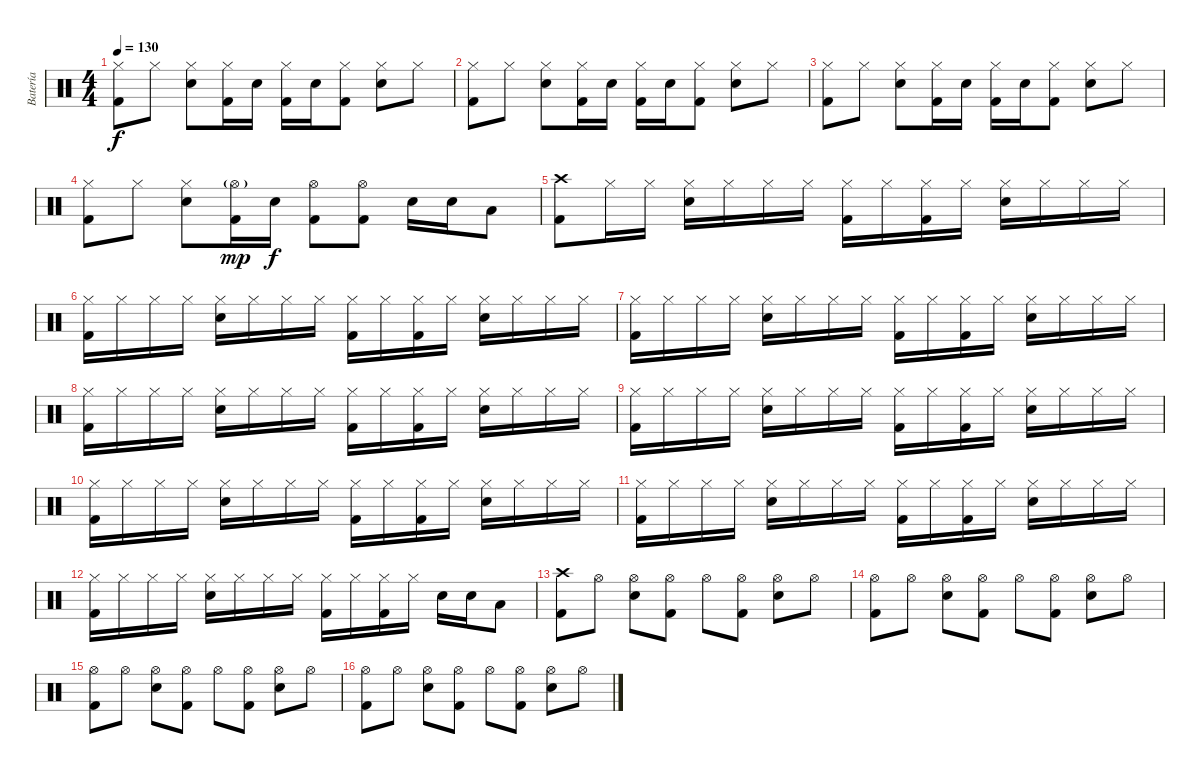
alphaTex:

\track ("Batería" "Batería") {instrument percussion}
\staff {score}
\articulation defaults
\ts (4 4)
\tempo 130
\clef neutral
\ks c
("Hi-Hat (closed)" "Kick (hit) 2").8{dy f} "Hi-Hat (closed)".8 ("Hi-Hat (closed)" "Snare (hit) 2").8 ("Hi-Hat (closed)" "Kick (hit) 2").16 "Snare (hit) 2".16 ("Hi-Hat (closed)" "Kick (hit) 2").16 "Snare (hit) 2".16 ("Hi-Hat (closed)" "Kick (hit) 2").8 ("Hi-Hat (closed)" "Snare (hit) 2").8 "Hi-Hat (closed)".8 |
("Hi-Hat (closed)" "Kick (hit) 2").8 "Hi-Hat (closed)".8 ("Hi-Hat (closed)" "Snare (hit) 2").8 ("Hi-Hat (closed)" "Kick (hit) 2").16 "Snare (hit) 2".16 ("Hi-Hat (closed)" "Kick (hit) 2").16 "Snare (hit) 2".16 ("Hi-Hat (closed)" "Kick (hit) 2").8 ("Hi-Hat (closed)" "Snare (hit) 2").8 "Hi-Hat (closed)".8 |
("Hi-Hat (closed)" "Kick (hit) 2").8 "Hi-Hat (closed)".8 ("Hi-Hat (closed)" "Snare (hit) 2").8 ("Hi-Hat (closed)" "Kick (hit) 2").16 "Snare (hit) 2".16 ("Hi-Hat (closed)" "Kick (hit) 2").16 "Snare (hit) 2".16 ("Hi-Hat (closed)" "Kick (hit) 2").8 ("Hi-Hat (closed)" "Snare (hit) 2").8 "Hi-Hat (closed)".8 |
("Hi-Hat (closed)" "Kick (hit) 2").8 "Hi-Hat (closed)".8 ("Hi-Hat (closed)" "Snare (hit) 2").8 ("Hi-Hat (open)"{g} "Kick (hit) 2").16{dy mp} "Snare (hit) 2".16{dy f} ("Hi-Hat (open)" "Kick (hit) 2").8 ("Hi-Hat (open)" "Kick (hit) 2").8 "Snare (hit) 2".16 "Snare (hit) 2".16 "Low Tom (hit)".8 |
("Crash high (hit)" "Kick (hit) 2").8 "Hi-Hat (closed)".16 "Hi-Hat (closed)".16 ("Hi-Hat (closed)" "Snare (hit) 2").16 "Hi-Hat (closed)".16 "Hi-Hat (closed)".16 "Hi-Hat (closed)".16 ("Hi-Hat (closed)" "Kick (hit) 2").16 "Hi-Hat (closed)".16 ("Hi-Hat (closed)" "Kick (hit) 2").16 "Hi-Hat (closed)".16 ("Hi-Hat (closed)" "Snare (hit) 2").16 "Hi-Hat (closed)".16 "Hi-Hat (closed)".16 "Hi-Hat (closed)".16 |
("Hi-Hat (closed)" "Kick (hit) 2").16 "Hi-Hat (closed)".16 "Hi-Hat (closed)".16 "Hi-Hat (closed)".16 ("Hi-Hat (closed)" "Snare (hit) 2").16 "Hi-Hat (closed)".16 "Hi-Hat (closed)".16 "Hi-Hat (closed)".16 ("Hi-Hat (closed)" "Kick (hit) 2").16 "Hi-Hat (closed)".16 ("Hi-Hat (closed)" "Kick (hit) 2").16 "Hi-Hat (closed)".16 ("Hi-Hat (closed)" "Snare (hit) 2").16 "Hi-Hat (closed)".16 "Hi-Hat (closed)".16 "Hi-Hat (closed)".16 |
("Hi-Hat (closed)" "Kick (hit) 2").16 "Hi-Hat (closed)".16 "Hi-Hat (closed)".16 "Hi-Hat (closed)".16 ("Hi-Hat (closed)" "Snare (hit) 2").16 "Hi-Hat (closed)".16 "Hi-Hat (closed)".16 "Hi-Hat (closed)".16 ("Hi-Hat (closed)" "Kick (hit) 2").16 "Hi-Hat (closed)".16 ("Hi-Hat (closed)" "Kick (hit) 2").16 "Hi-Hat (closed)".16 ("Hi-Hat (closed)" "Snare (hit) 2").16 "Hi-Hat (closed)".16 "Hi-Hat (closed)".16 "Hi-Hat (closed)".16 |
("Hi-Hat (closed)" "Kick (hit) 2").16 "Hi-Hat (closed)".16 "Hi-Hat (closed)".16 "Hi-Hat (closed)".16 ("Hi-Hat (closed)" "Snare (hit) 2").16 "Hi-Hat (closed)".16 "Hi-Hat (closed)".16 "Hi-Hat (closed)".16 ("Hi-Hat (closed)" "Kick (hit) 2").16 "Hi-Hat (closed)".16 ("Hi-Hat (closed)" "Kick (hit) 2").16 "Hi-Hat (closed)".16 ("Hi-Hat (closed)" "Snare (hit) 2").16 "Hi-Hat (closed)".16 "Hi-Hat (closed)".16 "Hi-Hat (closed)".16 |
("Hi-Hat (closed)" "Kick (hit) 2").16 "Hi-Hat (closed)".16 "Hi-Hat (closed)".16 "Hi-Hat (closed)".16 ("Hi-Hat (closed)" "Snare (hit) 2").16 "Hi-Hat (closed)".16 "Hi-Hat (closed)".16 "Hi-Hat (closed)".16 ("Hi-Hat (closed)" "Kick (hit) 2").16 "Hi-Hat (closed)".16 ("Hi-Hat (closed)" "Kick (hit) 2").16 "Hi-Hat (closed)".16 ("Hi-Hat (closed)" "Snare (hit) 2").16 "Hi-Hat (closed)".16 "Hi-Hat (closed)".16 "Hi-Hat (closed)".16 |
("Hi-Hat (closed)" "Kick (hit) 2").16 "Hi-Hat (closed)".16 "Hi-Hat (closed)".16 "Hi-Hat (closed)".16 ("Hi-Hat (closed)" "Snare (hit) 2").16 "Hi-Hat (closed)".16 "Hi-Hat (closed)".16 "Hi-Hat (closed)".16 ("Hi-Hat (closed)" "Kick (hit) 2").16 "Hi-Hat (closed)".16 ("Hi-Hat (closed)" "Kick (hit) 2").16 "Hi-Hat (closed)".16 ("Hi-Hat (closed)" "Snare (hit) 2").16 "Hi-Hat (closed)".16 "Hi-Hat (closed)".16 "Hi-Hat (closed)".16 |
("Hi-Hat (closed)" "Kick (hit) 2").16 "Hi-Hat (closed)".16 "Hi-Hat (closed)".16 "Hi-Hat (closed)".16 ("Hi-Hat (closed)" "Snare (hit) 2").16 "Hi-Hat (closed)".16 "Hi-Hat (closed)".16 "Hi-Hat (closed)".16 ("Hi-Hat (closed)" "Kick (hit) 2").16 "Hi-Hat (closed)".16 ("Hi-Hat (closed)" "Kick (hit) 2").16 "Hi-Hat (closed)".16 ("Hi-Hat (closed)" "Snare (hit) 2").16 "Hi-Hat (closed)".16 "Hi-Hat (closed)".16 "Hi-Hat (closed)".16 |
("Hi-Hat (closed)" "Kick (hit) 2").16 "Hi-Hat (closed)".16 "Hi-Hat (closed)".16 "Hi-Hat (closed)".16 ("Hi-Hat (closed)" "Snare (hit) 2").16 "Hi-Hat (closed)".16 "Hi-Hat (closed)".16 "Hi-Hat (closed)".16 ("Hi-Hat (closed)" "Kick (hit) 2").16 "Hi-Hat (closed)".16 ("Hi-Hat (closed)" "Kick (hit) 2").16 "Hi-Hat (closed)".16 "Snare (hit) 2".16 "Snare (hit) 2".16 "Low Tom (hit)".8 |
("Crash high (hit)" "Kick (hit) 2").8 "Hi-Hat (open)".8 ("Hi-Hat (open)" "Snare (hit) 2").8 ("Hi-Hat (open)" "Kick (hit) 2").8 "Hi-Hat (open)".8 ("Hi-Hat (open)" "Kick (hit) 2").8 ("Hi-Hat (open)" "Snare (hit) 2").8 "Hi-Hat (open)".8 |
("Hi-Hat (open)" "Kick (hit) 2").8 "Hi-Hat (open)".8 ("Hi-Hat (open)" "Snare (hit) 2").8 ("Hi-Hat (open)" "Kick (hit) 2").8 "Hi-Hat (open)".8 ("Hi-Hat (open)" "Kick (hit) 2").8 ("Hi-Hat (open)" "Snare (hit) 2").8 "Hi-Hat (open)".8 |
("Hi-Hat (open)" "Kick (hit) 2").8 "Hi-Hat (open)".8 ("Hi-Hat (open)" "Snare (hit) 2").8 ("Hi-Hat (open)" "Kick (hit) 2").8 "Hi-Hat (open)".8 ("Hi-Hat (open)" "Kick (hit) 2").8 ("Hi-Hat (open)" "Snare (hit) 2").8 "Hi-Hat (open)".8 |
("Hi-Hat (open)" "Kick (hit) 2").8 "Hi-Hat (open)".8 ("Hi-Hat (open)" "Snare (hit) 2").8 ("Hi-Hat (open)" "Kick (hit) 2").8 "Hi-Hat (open)".8 ("Hi-Hat (open)" "Kick (hit) 2").8 ("Hi-Hat (open)" "Snare (hit) 2").8 "Hi-Hat (open)".8
